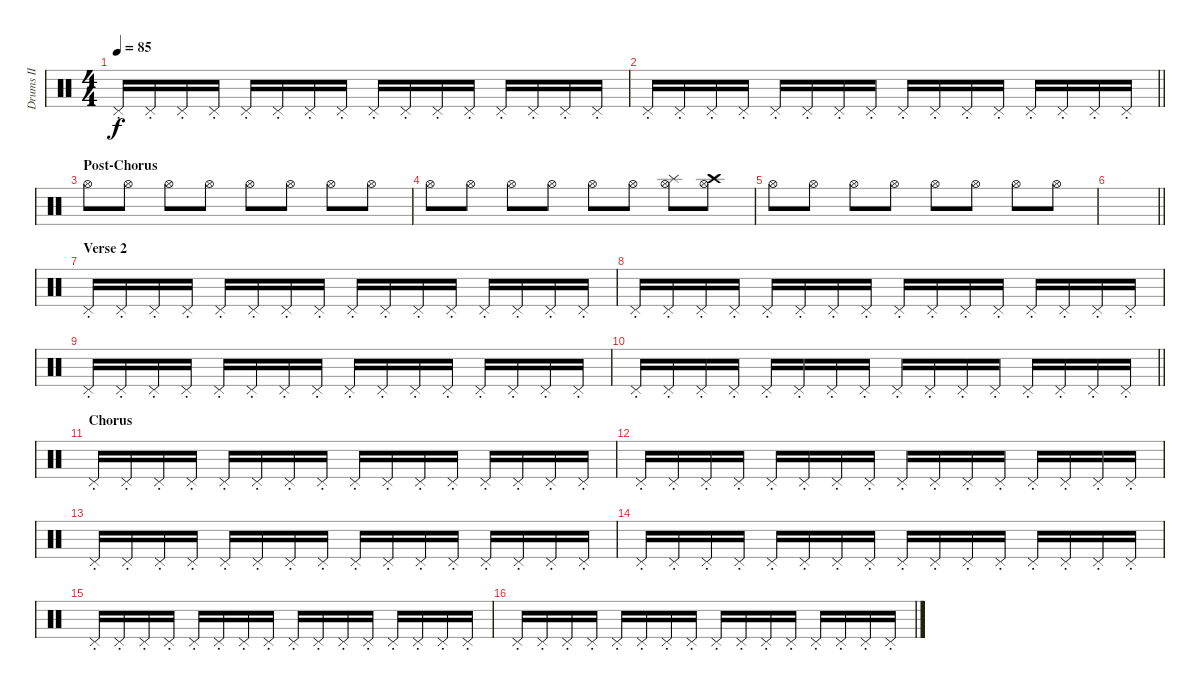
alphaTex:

\track ("Drums II" "Drums II") {instrument percussion}
\staff {score}
\articulation defaults
\ts (4 4)
\tempo 85
\clef neutral
\ks c "Pedal Hi-Hat (hit)"{st}.16{dy f} "Pedal Hi-Hat (hit)"{st}.16 "Pedal Hi-Hat (hit)"{st}.16 "Pedal Hi-Hat (hit)"{st}.16 "Pedal Hi-Hat (hit)"{st}.16 "Pedal Hi-Hat (hit)"{st}.16 "Pedal Hi-Hat (hit)"{st}.16 "Pedal Hi-Hat (hit)"{st}.16 "Pedal Hi-Hat (hit)"{st}.16 "Pedal Hi-Hat (hit)"{st}.16 "Pedal Hi-Hat (hit)"{st}.16 "Pedal Hi-Hat (hit)"{st}.16 "Pedal Hi-Hat (hit)"{st}.16 "Pedal Hi-Hat (hit)"{st}.16 "Pedal Hi-Hat (hit)"{st}.16 "Pedal Hi-Hat (hit)"{st}.16
|
\barLineRight lightlight "Pedal Hi-Hat (hit)"{st}.16 "Pedal Hi-Hat (hit)"{st}.16 "Pedal Hi-Hat (hit)"{st}.16 "Pedal Hi-Hat (hit)"{st}.16 "Pedal Hi-Hat (hit)"{st}.16 "Pedal Hi-Hat (hit)"{st}.16 "Pedal Hi-Hat (hit)"{st}.16 "Pedal Hi-Hat (hit)"{st}.16 "Pedal Hi-Hat (hit)"{st}.16 "Pedal Hi-Hat (hit)"{st}.16 "Pedal Hi-Hat (hit)"{st}.16 "Pedal Hi-Hat (hit)"{st}.16 "Pedal Hi-Hat (hit)"{st}.16 "Pedal Hi-Hat (hit)"{st}.16 "Pedal Hi-Hat (hit)"{st}.16 "Pedal Hi-Hat (hit)"{st}.16
|
\section ("" "Post-Chorus")
"Hi-Hat (open)".8 "Hi-Hat (open)".8 "Hi-Hat (open)".8 "Hi-Hat (open)".8 "Hi-Hat (open)".8 "Hi-Hat (open)".8 "Hi-Hat (open)".8 "Hi-Hat (open)".8 |
"Hi-Hat (open)".8 "Hi-Hat (open)".8 "Hi-Hat (open)".8 "Hi-Hat (open)".8 "Hi-Hat (open)".8 "Hi-Hat (open)".8 ("Splash (hit)" "Hi-Hat (open)").8 ("Crash high (hit)" "Hi-Hat (open)").8 |
"Hi-Hat (open)".8 "Hi-Hat (open)".8 "Hi-Hat (open)".8 "Hi-Hat (open)".8 "Hi-Hat (open)".8 "Hi-Hat (open)".8 "Hi-Hat (open)".8 "Hi-Hat (open)".8 |
\barLineRight lightlight
|
\section ("" "Verse 2")
"Pedal Hi-Hat (hit)"{st}.16 "Pedal Hi-Hat (hit)"{st}.16 "Pedal Hi-Hat (hit)"{st}.16 "Pedal Hi-Hat (hit)"{st}.16 "Pedal Hi-Hat (hit)"{st}.16 "Pedal Hi-Hat (hit)"{st}.16 "Pedal Hi-Hat (hit)"{st}.16 "Pedal Hi-Hat (hit)"{st}.16 "Pedal Hi-Hat (hit)"{st}.16 "Pedal Hi-Hat (hit)"{st}.16 "Pedal Hi-Hat (hit)"{st}.16 "Pedal Hi-Hat (hit)"{st}.16 "Pedal Hi-Hat (hit)"{st}.16 "Pedal Hi-Hat (hit)"{st}.16 "Pedal Hi-Hat (hit)"{st}.16 "Pedal Hi-Hat (hit)"{st}.16 |
"Pedal Hi-Hat (hit)"{st}.16 "Pedal Hi-Hat (hit)"{st}.16 "Pedal Hi-Hat (hit)"{st}.16 "Pedal Hi-Hat (hit)"{st}.16 "Pedal Hi-Hat (hit)"{st}.16 "Pedal Hi-Hat (hit)"{st}.16 "Pedal Hi-Hat (hit)"{st}.16 "Pedal Hi-Hat (hit)"{st}.16 "Pedal Hi-Hat (hit)"{st}.16 "Pedal Hi-Hat (hit)"{st}.16 "Pedal Hi-Hat (hit)"{st}.16 "Pedal Hi-Hat (hit)"{st}.16 "Pedal Hi-Hat (hit)"{st}.16 "Pedal Hi-Hat (hit)"{st}.16 "Pedal Hi-Hat (hit)"{st}.16 "Pedal Hi-Hat (hit)"{st}.16 |
"Pedal Hi-Hat (hit)"{st}.16 "Pedal Hi-Hat (hit)"{st}.16 "Pedal Hi-Hat (hit)"{st}.16 "Pedal Hi-Hat (hit)"{st}.16 "Pedal Hi-Hat (hit)"{st}.16 "Pedal Hi-Hat (hit)"{st}.16 "Pedal Hi-Hat (hit)"{st}.16 "Pedal Hi-Hat (hit)"{st}.16 "Pedal Hi-Hat (hit)"{st}.16 "Pedal Hi-Hat (hit)"{st}.16 "Pedal Hi-Hat (hit)"{st}.16 "Pedal Hi-Hat (hit)"{st}.16 "Pedal Hi-Hat (hit)"{st}.16 "Pedal Hi-Hat (hit)"{st}.16 "Pedal Hi-Hat (hit)"{st}.16 "Pedal Hi-Hat (hit)"{st}.16 |
\barLineRight lightlight "Pedal Hi-Hat (hit)"{st}.16 "Pedal Hi-Hat (hit)"{st}.16 "Pedal Hi-Hat (hit)"{st}.16 "Pedal Hi-Hat (hit)"{st}.16 "Pedal Hi-Hat (hit)"{st}.16 "Pedal Hi-Hat (hit)"{st}.16 "Pedal Hi-Hat (hit)"{st}.16 "Pedal Hi-Hat (hit)"{st}.16 "Pedal Hi-Hat (hit)"{st}.16 "Pedal Hi-Hat (hit)"{st}.16 "Pedal Hi-Hat (hit)"{st}.16 "Pedal Hi-Hat (hit)"{st}.16 "Pedal Hi-Hat (hit)"{st}.16 "Pedal Hi-Hat (hit)"{st}.16 "Pedal Hi-Hat (hit)"{st}.16 "Pedal Hi-Hat (hit)"{st}.16
|
\section ("" "Chorus")
"Pedal Hi-Hat (hit)"{st}.16 "Pedal Hi-Hat (hit)"{st}.16 "Pedal Hi-Hat (hit)"{st}.16 "Pedal Hi-Hat (hit)"{st}.16 "Pedal Hi-Hat (hit)"{st}.16 "Pedal Hi-Hat (hit)"{st}.16 "Pedal Hi-Hat (hit)"{st}.16 "Pedal Hi-Hat (hit)"{st}.16 "Pedal Hi-Hat (hit)"{st}.16 "Pedal Hi-Hat (hit)"{st}.16 "Pedal Hi-Hat (hit)"{st}.16 "Pedal Hi-Hat (hit)"{st}.16 "Pedal Hi-Hat (hit)"{st}.16 "Pedal Hi-Hat (hit)"{st}.16 "Pedal Hi-Hat (hit)"{st}.16 "Pedal Hi-Hat (hit)"{st}.16 |
"Pedal Hi-Hat (hit)"{st}.16 "Pedal Hi-Hat (hit)"{st}.16 "Pedal Hi-Hat (hit)"{st}.16 "Pedal Hi-Hat (hit)"{st}.16 "Pedal Hi-Hat (hit)"{st}.16 "Pedal Hi-Hat (hit)"{st}.16 "Pedal Hi-Hat (hit)"{st}.16 "Pedal Hi-Hat (hit)"{st}.16 "Pedal Hi-Hat (hit)"{st}.16 "Pedal Hi-Hat (hit)"{st}.16 "Pedal Hi-Hat (hit)"{st}.16 "Pedal Hi-Hat (hit)"{st}.16 "Pedal Hi-Hat (hit)"{st}.16 "Pedal Hi-Hat (hit)"{st}.16 "Pedal Hi-Hat (hit)"{st}.16 "Pedal Hi-Hat (hit)"{st}.16 |
"Pedal Hi-Hat (hit)"{st}.16 "Pedal Hi-Hat (hit)"{st}.16 "Pedal Hi-Hat (hit)"{st}.16 "Pedal Hi-Hat (hit)"{st}.16 "Pedal Hi-Hat (hit)"{st}.16 "Pedal Hi-Hat (hit)"{st}.16 "Pedal Hi-Hat (hit)"{st}.16 "Pedal Hi-Hat (hit)"{st}.16 "Pedal Hi-Hat (hit)"{st}.16 "Pedal Hi-Hat (hit)"{st}.16 "Pedal Hi-Hat (hit)"{st}.16 "Pedal Hi-Hat (hit)"{st}.16 "Pedal Hi-Hat (hit)"{st}.16 "Pedal Hi-Hat (hit)"{st}.16 "Pedal Hi-Hat (hit)"{st}.16 "Pedal Hi-Hat (hit)"{st}.16 |
"Pedal Hi-Hat (hit)"{st}.16 "Pedal Hi-Hat (hit)"{st}.16 "Pedal Hi-Hat (hit)"{st}.16 "Pedal Hi-Hat (hit)"{st}.16 "Pedal Hi-Hat (hit)"{st}.16 "Pedal Hi-Hat (hit)"{st}.16 "Pedal Hi-Hat (hit)"{st}.16 "Pedal Hi-Hat (hit)"{st}.16 "Pedal Hi-Hat (hit)"{st}.16 "Pedal Hi-Hat (hit)"{st}.16 "Pedal Hi-Hat (hit)"{st}.16 "Pedal Hi-Hat (hit)"{st}.16 "Pedal Hi-Hat (hit)"{st}.16 "Pedal Hi-Hat (hit)"{st}.16 "Pedal Hi-Hat (hit)"{st}.16 "Pedal Hi-Hat (hit)"{st}.16 |
"Pedal Hi-Hat (hit)"{st}.16 "Pedal Hi-Hat (hit)"{st}.16 "Pedal Hi-Hat (hit)"{st}.16 "Pedal Hi-Hat (hit)"{st}.16 "Pedal Hi-Hat (hit)"{st}.16 "Pedal Hi-Hat (hit)"{st}.16 "Pedal Hi-Hat (hit)"{st}.16 "Pedal Hi-Hat (hit)"{st}.16 "Pedal Hi-Hat (hit)"{st}.16 "Pedal Hi-Hat (hit)"{st}.16 "Pedal Hi-Hat (hit)"{st}.16 "Pedal Hi-Hat (hit)"{st}.16 "Pedal Hi-Hat (hit)"{st}.16 "Pedal Hi-Hat (hit)"{st}.16 "Pedal Hi-Hat (hit)"{st}.16 "Pedal Hi-Hat (hit)"{st}.16 |
"Pedal Hi-Hat (hit)"{st}.16 "Pedal Hi-Hat (hit)"{st}.16 "Pedal Hi-Hat (hit)"{st}.16 "Pedal Hi-Hat (hit)"{st}.16 "Pedal Hi-Hat (hit)"{st}.16 "Pedal Hi-Hat (hit)"{st}.16 "Pedal Hi-Hat (hit)"{st}.16 "Pedal Hi-Hat (hit)"{st}.16 "Pedal Hi-Hat (hit)"{st}.16 "Pedal Hi-Hat (hit)"{st}.16 "Pedal Hi-Hat (hit)"{st}.16 "Pedal Hi-Hat (hit)"{st}.16 "Pedal Hi-Hat (hit)"{st}.16 "Pedal Hi-Hat (hit)"{st}.16 "Pedal Hi-Hat (hit)"{st}.16 "Pedal Hi-Hat (hit)"{st}.16
